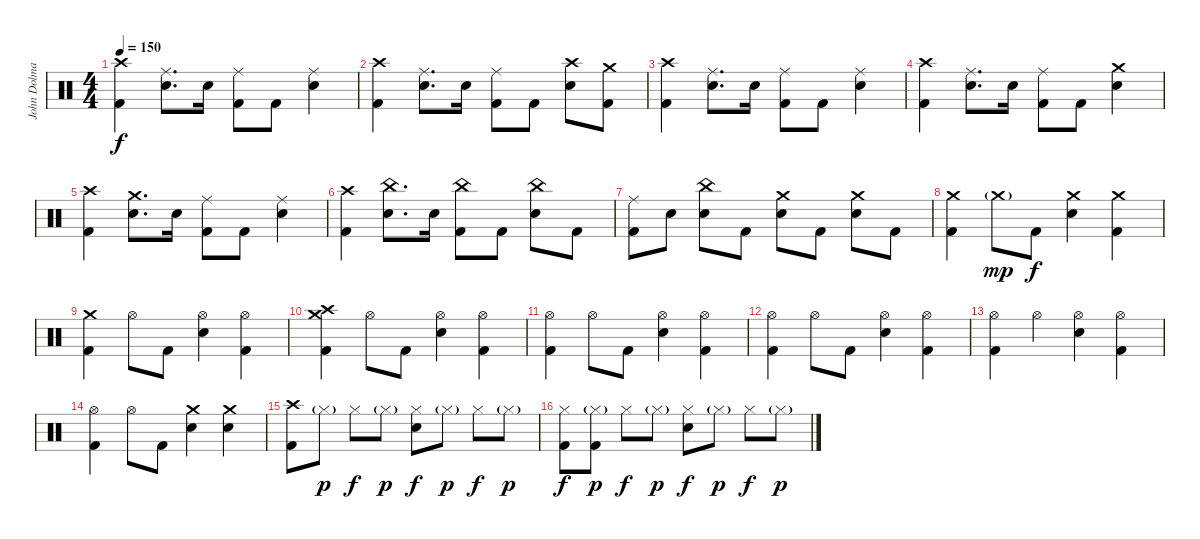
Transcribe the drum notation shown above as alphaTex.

\track ("John Dolmayan(Drums)" "John Dolma") {instrument percussion}
\staff {score}
\articulation defaults
\ts (4 4)
\tempo 150
\clef neutral
\ks c
("Crash high (hit)" "Kick (hit) 2").4{dy f} ("Ride (middle)" "Snare (hit) 2").8{d} "Snare (hit) 2".16 ("Ride (middle)" "Kick (hit) 2").8 "Kick (hit) 2".8 ("Ride (middle)" "Snare (hit) 2").4 |
("Crash high (hit)" "Kick (hit) 2").4 ("Ride (middle)" "Snare (hit) 2").8{d} "Snare (hit) 2".16 ("Ride (middle)" "Kick (hit) 2").8 "Kick (hit) 2".8 ("Crash high (hit)" "Snare (hit) 2").8 ("Crash medium (hit)" "Kick (hit) 2").8 |
("Crash high (hit)" "Kick (hit) 2").4 ("Ride (middle)" "Snare (hit) 2").8{d} "Snare (hit) 2".16 ("Ride (middle)" "Kick (hit) 2").8 "Kick (hit) 2".8 ("Ride (middle)" "Snare (hit) 2").4 |
("Crash high (hit)" "Kick (hit) 2").4 ("Ride (middle)" "Snare (hit) 2").8{d} "Snare (hit) 2".16 ("Ride (middle)" "Kick (hit) 2").8 "Kick (hit) 2".8 ("Crash medium (hit)" "Snare (hit) 2").4 |
("Crash high (hit)" "Kick (hit) 2").4 ("Crash medium (hit)" "Snare (hit) 2").8{d} "Snare (hit) 2".16 ("Ride (middle)" "Kick (hit) 2").8 "Kick (hit) 2".8 ("Ride (middle)" "Snare (hit) 2").4 |
("Crash high (hit)" "Kick (hit) 2").4 ("China (hit)" "Snare (hit) 2").8{d} "Snare (hit) 2".16 ("China (hit)" "Kick (hit) 2").8 "Kick (hit) 2".8 ("China (hit)" "Snare (hit) 2").8 "Kick (hit) 2".8 |
("Ride (middle)" "Kick (hit) 2").8 "Snare (hit) 2".8 ("China (hit)" "Snare (hit) 2").8 "Kick (hit) 2".8 ("Crash medium (hit)" "Snare (hit) 2").8 "Kick (hit) 2".8 ("Crash medium (hit)" "Snare (hit) 2").8 "Kick (hit) 2".8 |
("Crash medium (hit)" "Kick (hit) 2").4 "Crash medium (hit)"{g}.8{dy mp} "Kick (hit) 2".8{dy f} ("Crash medium (hit)" "Snare (hit) 2").4 ("Crash medium (hit)" "Kick (hit) 2").4 |
("Crash medium (hit)" "Kick (hit) 2").4 "Hi-Hat (open)".8 "Kick (hit) 2".8 ("Hi-Hat (open)" "Snare (hit) 2").4 ("Hi-Hat (open)" "Kick (hit) 2").4 |
("Crash high (hit)" "Crash medium (hit)" "Kick (hit) 2").4 "Hi-Hat (open)".8 "Kick (hit) 2".8 ("Hi-Hat (open)" "Snare (hit) 2").4 ("Hi-Hat (open)" "Kick (hit) 2").4 |
("Hi-Hat (open)" "Kick (hit) 2").4 "Hi-Hat (open)".8 "Kick (hit) 2".8 ("Hi-Hat (open)" "Snare (hit) 2").4 ("Hi-Hat (open)" "Kick (hit) 2").4 |
("Hi-Hat (open)" "Kick (hit) 2").4 "Hi-Hat (open)".8 "Kick (hit) 2".8 ("Hi-Hat (open)" "Snare (hit) 2").4 ("Hi-Hat (open)" "Kick (hit) 2").4 |
("Hi-Hat (open)" "Kick (hit) 2").4 "Hi-Hat (open)".4 ("Hi-Hat (open)" "Snare (hit) 2").4 ("Hi-Hat (open)" "Kick (hit) 2").4 |
("Hi-Hat (open)" "Kick (hit) 2").4 "Hi-Hat (open)".8 "Kick (hit) 2".8 ("Crash medium (hit)" "Snare (hit) 2").4 ("Crash medium (hit)" "Snare (hit) 2").4 |
("Crash high (hit)" "Kick (hit) 2").8 "Hi-Hat (closed)"{g}.8{dy p} "Hi-Hat (closed)".8{dy f} "Hi-Hat (closed)"{g}.8{dy p} ("Hi-Hat (closed)" "Snare (hit) 2").8{dy f} "Hi-Hat (closed)"{g}.8{dy p} "Hi-Hat (closed)".8{dy f} "Hi-Hat (closed)"{g}.8{dy p} |
("Hi-Hat (closed)" "Kick (hit) 2").8{dy f} ("Hi-Hat (closed)"{g} "Kick (hit) 2").8{dy p} "Hi-Hat (closed)".8{dy f} "Hi-Hat (closed)"{g}.8{dy p} ("Hi-Hat (closed)" "Snare (hit) 2").8{dy f} "Hi-Hat (closed)"{g}.8{dy p} "Hi-Hat (closed)".8{dy f} "Hi-Hat (closed)"{g}.8{dy p}
